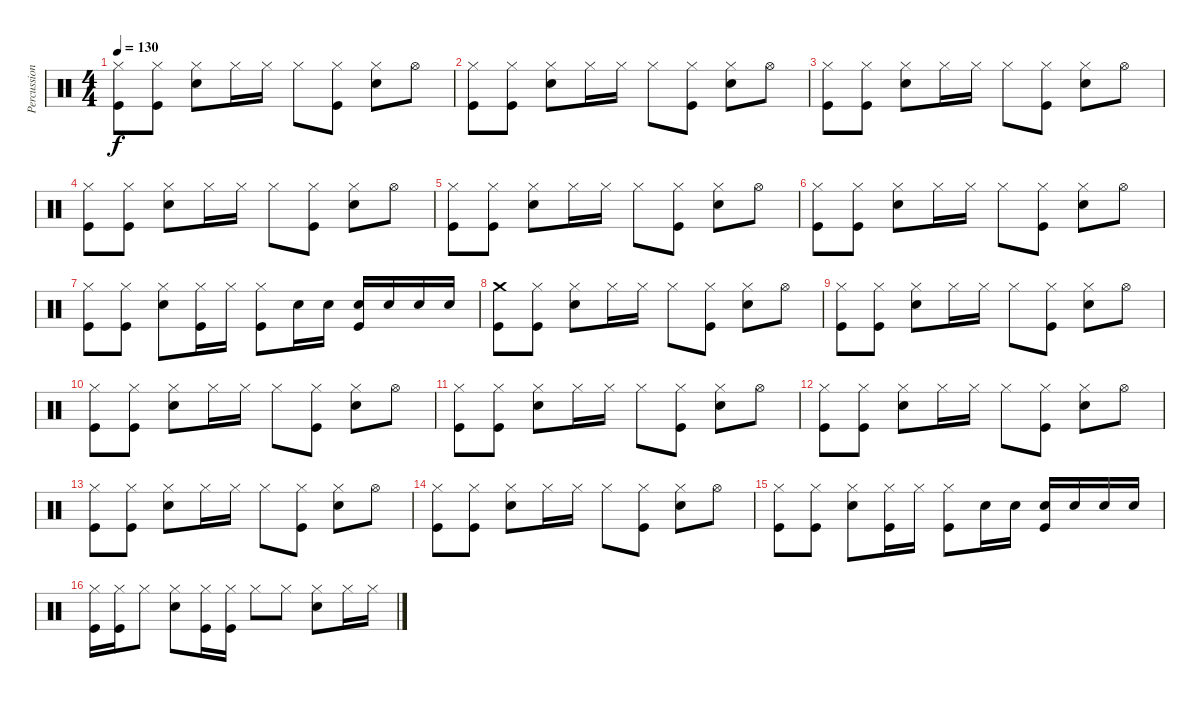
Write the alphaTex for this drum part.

\track ("Percussion" "Percussion") {instrument percussion}
\staff {score}
\articulation defaults
\ts (4 4)
\tempo 130
\clef neutral
\ks c
("Hi-Hat (closed)" "Kick (hit)").8{dy f} ("Hi-Hat (closed)" "Kick (hit)").8 ("Hi-Hat (closed)" "Electric Snare (hit)").8 "Hi-Hat (closed)".16 "Hi-Hat (closed)".16 "Hi-Hat (closed)".8 ("Hi-Hat (closed)" "Kick (hit)").8 ("Hi-Hat (closed)" "Electric Snare (hit)").8 "Hi-Hat (open)".8 |
("Hi-Hat (closed)" "Kick (hit)").8 ("Hi-Hat (closed)" "Kick (hit)").8 ("Hi-Hat (closed)" "Electric Snare (hit)").8 "Hi-Hat (closed)".16 "Hi-Hat (closed)".16 "Hi-Hat (closed)".8 ("Hi-Hat (closed)" "Kick (hit)").8 ("Hi-Hat (closed)" "Electric Snare (hit)").8 "Hi-Hat (open)".8 |
("Hi-Hat (closed)" "Kick (hit)").8 ("Hi-Hat (closed)" "Kick (hit)").8 ("Hi-Hat (closed)" "Electric Snare (hit)").8 "Hi-Hat (closed)".16 "Hi-Hat (closed)".16 "Hi-Hat (closed)".8 ("Hi-Hat (closed)" "Kick (hit)").8 ("Hi-Hat (closed)" "Electric Snare (hit)").8 "Hi-Hat (open)".8 |
("Hi-Hat (closed)" "Kick (hit)").8 ("Hi-Hat (closed)" "Kick (hit)").8 ("Hi-Hat (closed)" "Electric Snare (hit)").8 "Hi-Hat (closed)".16 "Hi-Hat (closed)".16 "Hi-Hat (closed)".8 ("Hi-Hat (closed)" "Kick (hit)").8 ("Hi-Hat (closed)" "Electric Snare (hit)").8 "Hi-Hat (open)".8 |
("Hi-Hat (closed)" "Kick (hit)").8 ("Hi-Hat (closed)" "Kick (hit)").8 ("Hi-Hat (closed)" "Electric Snare (hit)").8 "Hi-Hat (closed)".16 "Hi-Hat (closed)".16 "Hi-Hat (closed)".8 ("Hi-Hat (closed)" "Kick (hit)").8 ("Hi-Hat (closed)" "Electric Snare (hit)").8 "Hi-Hat (open)".8 |
("Hi-Hat (closed)" "Kick (hit)").8 ("Hi-Hat (closed)" "Kick (hit)").8 ("Hi-Hat (closed)" "Electric Snare (hit)").8 "Hi-Hat (closed)".16 "Hi-Hat (closed)".16 "Hi-Hat (closed)".8 ("Hi-Hat (closed)" "Kick (hit)").8 ("Hi-Hat (closed)" "Electric Snare (hit)").8 "Hi-Hat (open)".8 |
("Hi-Hat (closed)" "Kick (hit)").8 ("Hi-Hat (closed)" "Kick (hit)").8 ("Hi-Hat (closed)" "Electric Snare (hit)").8 ("Hi-Hat (closed)" "Kick (hit)").16 "Hi-Hat (closed)".16 ("Hi-Hat (closed)" "Kick (hit)").8 "Electric Snare (hit)".16 "Electric Snare (hit)".16 ("Electric Snare (hit)" "Kick (hit)").16 "Electric Snare (hit)".16 "Electric Snare (hit)".16 "Electric Snare (hit)".16 |
("Crash medium (hit)" "Kick (hit)").8 ("Hi-Hat (closed)" "Kick (hit)").8 ("Hi-Hat (closed)" "Electric Snare (hit)").8 "Hi-Hat (closed)".16 "Hi-Hat (closed)".16 "Hi-Hat (closed)".8 ("Hi-Hat (closed)" "Kick (hit)").8 ("Hi-Hat (closed)" "Electric Snare (hit)").8 "Hi-Hat (open)".8 |
("Hi-Hat (closed)" "Kick (hit)").8 ("Hi-Hat (closed)" "Kick (hit)").8 ("Hi-Hat (closed)" "Electric Snare (hit)").8 "Hi-Hat (closed)".16 "Hi-Hat (closed)".16 "Hi-Hat (closed)".8 ("Hi-Hat (closed)" "Kick (hit)").8 ("Hi-Hat (closed)" "Electric Snare (hit)").8 "Hi-Hat (open)".8 |
("Hi-Hat (closed)" "Kick (hit)").8 ("Hi-Hat (closed)" "Kick (hit)").8 ("Hi-Hat (closed)" "Electric Snare (hit)").8 "Hi-Hat (closed)".16 "Hi-Hat (closed)".16 "Hi-Hat (closed)".8 ("Hi-Hat (closed)" "Kick (hit)").8 ("Hi-Hat (closed)" "Electric Snare (hit)").8 "Hi-Hat (open)".8 |
("Hi-Hat (closed)" "Kick (hit)").8 ("Hi-Hat (closed)" "Kick (hit)").8 ("Hi-Hat (closed)" "Electric Snare (hit)").8 "Hi-Hat (closed)".16 "Hi-Hat (closed)".16 "Hi-Hat (closed)".8 ("Hi-Hat (closed)" "Kick (hit)").8 ("Hi-Hat (closed)" "Electric Snare (hit)").8 "Hi-Hat (open)".8 |
("Hi-Hat (closed)" "Kick (hit)").8 ("Hi-Hat (closed)" "Kick (hit)").8 ("Hi-Hat (closed)" "Electric Snare (hit)").8 "Hi-Hat (closed)".16 "Hi-Hat (closed)".16 "Hi-Hat (closed)".8 ("Hi-Hat (closed)" "Kick (hit)").8 ("Hi-Hat (closed)" "Electric Snare (hit)").8 "Hi-Hat (open)".8 |
("Hi-Hat (closed)" "Kick (hit)").8 ("Hi-Hat (closed)" "Kick (hit)").8 ("Hi-Hat (closed)" "Electric Snare (hit)").8 "Hi-Hat (closed)".16 "Hi-Hat (closed)".16 "Hi-Hat (closed)".8 ("Hi-Hat (closed)" "Kick (hit)").8 ("Hi-Hat (closed)" "Electric Snare (hit)").8 "Hi-Hat (open)".8 |
("Hi-Hat (closed)" "Kick (hit)").8 ("Hi-Hat (closed)" "Kick (hit)").8 ("Hi-Hat (closed)" "Electric Snare (hit)").8 "Hi-Hat (closed)".16 "Hi-Hat (closed)".16 "Hi-Hat (closed)".8 ("Hi-Hat (closed)" "Kick (hit)").8 ("Hi-Hat (closed)" "Electric Snare (hit)").8 "Hi-Hat (open)".8 |
("Hi-Hat (closed)" "Kick (hit)").8 ("Hi-Hat (closed)" "Kick (hit)").8 ("Hi-Hat (closed)" "Electric Snare (hit)").8 ("Hi-Hat (closed)" "Kick (hit)").16 "Hi-Hat (closed)".16 ("Hi-Hat (closed)" "Kick (hit)").8 "Electric Snare (hit)".16 "Electric Snare (hit)".16 ("Electric Snare (hit)" "Kick (hit)").16 "Electric Snare (hit)".16 "Electric Snare (hit)".16 "Electric Snare (hit)".16 |
("Hi-Hat (closed)" "Kick (hit)").16 ("Hi-Hat (closed)" "Kick (hit)").16 "Hi-Hat (closed)".8 ("Hi-Hat (closed)" "Electric Snare (hit)").8 ("Hi-Hat (closed)" "Kick (hit)").16 ("Hi-Hat (closed)" "Kick (hit)").16 "Hi-Hat (closed)".8 "Hi-Hat (closed)".8 ("Hi-Hat (closed)" "Electric Snare (hit)").8 "Hi-Hat (closed)".16 "Hi-Hat (closed)".16
